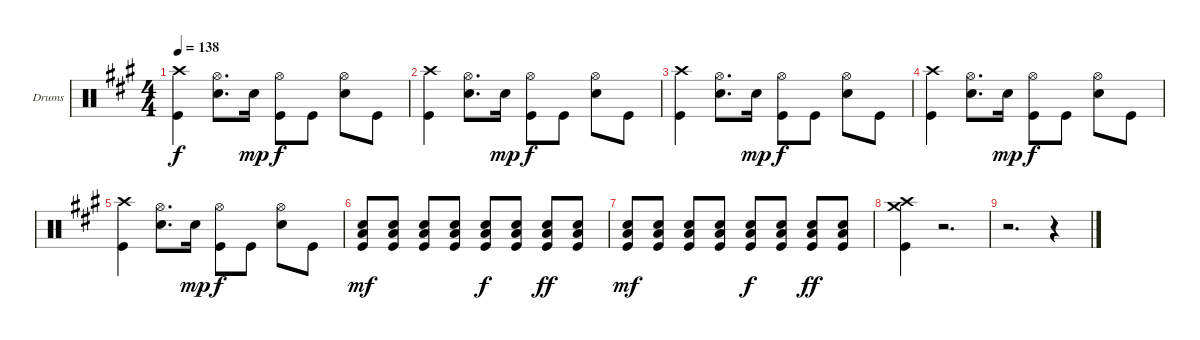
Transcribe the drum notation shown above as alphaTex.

\defaultSystemsLayout 4
\bracketExtendMode groupsimilarinstruments
\firstSystemTrackNameOrientation horizontal
\otherSystemsTrackNameOrientation horizontal
\track ("Drumkit" "Drums") {instrument percussion}
\staff {score}
\articulation defaults
\ts (4 4)
\tempo 138
\clef neutral
\scale
1.05801
\ks a
("Crash high (hit)" "Kick (hit)").4{dy f} ("Hi-Hat (open)" "Snare (hit) 2").8{d} "Snare (hit) 2".16{dy mp} ("Hi-Hat (open)" "Kick (hit)").8{dy f} "Kick (hit)".8 ("Hi-Hat (open)" "Snare (hit) 2").8 "Kick (hit)".8 |
\scale
0.941992 ("Crash high (hit)" "Kick (hit)").4 ("Hi-Hat (open)" "Snare (hit) 2").8{d} "Snare (hit) 2".16{dy mp} ("Hi-Hat (open)" "Kick (hit)").8{dy f} "Kick (hit)".8 ("Hi-Hat (open)" "Snare (hit) 2").8 "Kick (hit)".8 |
\scale
1.05801 ("Crash high (hit)" "Kick (hit)").4 ("Hi-Hat (open)" "Snare (hit) 2").8{d} "Snare (hit) 2".16{dy mp} ("Hi-Hat (open)" "Kick (hit)").8{dy f} "Kick (hit)".8 ("Hi-Hat (open)" "Snare (hit) 2").8 "Kick (hit)".8 |
\scale
0.941992 ("Crash high (hit)" "Kick (hit)").4 ("Hi-Hat (open)" "Snare (hit) 2").8{d} "Snare (hit) 2".16{dy mp} ("Hi-Hat (open)" "Kick (hit)").8{dy f} "Kick (hit)".8 ("Hi-Hat (open)" "Snare (hit) 2").8 "Kick (hit)".8 |
\scale
1.05801 ("Crash high (hit)" "Kick (hit)").4 ("Hi-Hat (open)" "Snare (hit) 2").8{d} "Snare (hit) 2".16{dy mp} ("Hi-Hat (open)" "Kick (hit)").8{dy f} "Kick (hit)".8 ("Hi-Hat (open)" "Snare (hit) 2").8 "Kick (hit)".8 |
\scale
0.941992 ("Snare (hit) 2" "Low Tom (hit)" "Kick (hit)").8{dy mf} ("Snare (hit) 2" "Low Tom (hit)" "Kick (hit)").8 ("Snare (hit) 2" "Low Tom (hit)" "Kick (hit)").8 ("Snare (hit) 2" "Low Tom (hit)" "Kick (hit)").8 ("Snare (hit) 2" "Low Tom (hit)" "Kick (hit)").8{dy f} ("Snare (hit) 2" "Low Tom (hit)" "Kick (hit)").8 ("Snare (hit) 2" "Low Tom (hit)" "Kick (hit)").8{dy ff} ("Snare (hit) 2" "Low Tom (hit)" "Kick (hit)").8 |
\scale
1.05801 ("Snare (hit) 2" "Low Tom (hit)" "Kick (hit)").8{dy mf} ("Snare (hit) 2" "Low Tom (hit)" "Kick (hit)").8 ("Snare (hit) 2" "Low Tom (hit)" "Kick (hit)").8 ("Snare (hit) 2" "Low Tom (hit)" "Kick (hit)").8 ("Snare (hit) 2" "Low Tom (hit)" "Kick (hit)").8{dy f} ("Snare (hit) 2" "Low Tom (hit)" "Kick (hit)").8 ("Snare (hit) 2" "Low Tom (hit)" "Kick (hit)").8{dy ff} ("Snare (hit) 2" "Low Tom (hit)" "Kick (hit)").8 |
\scale
0.941992 ("Crash high (hit)" "Crash medium (hit)" "Kick (hit)").4 r.2{d} |
r.2{d} r.4
